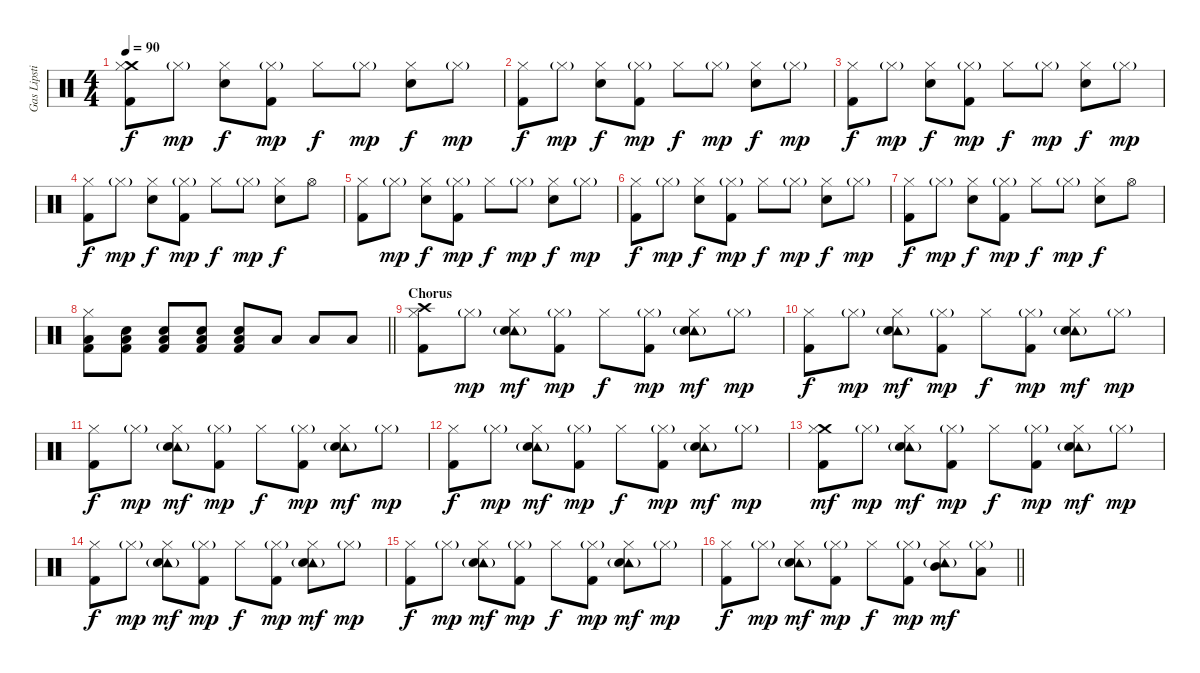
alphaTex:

\track ("Gas Lipstick (Drums)" "Gas Lipsti") {instrument percussion}
\staff {score}
\articulation defaults
\ts (4 4)
\tempo 90
\clef neutral
\ks c
("Crash medium (hit)" "Hi-Hat (closed)" "Kick (hit) 2").8{dy f} "Hi-Hat (closed)"{g}.8{dy mp} ("Hi-Hat (closed)" "Snare (hit) 2").8{dy f} ("Hi-Hat (closed)"{g} "Kick (hit) 2").8{dy mp} "Hi-Hat (closed)".8{dy f} "Hi-Hat (closed)"{g}.8{dy mp} ("Hi-Hat (closed)" "Snare (hit) 2").8{dy f} "Hi-Hat (closed)"{g}.8{dy mp} |
("Hi-Hat (closed)" "Kick (hit) 2").8{dy f} "Hi-Hat (closed)"{g}.8{dy mp} ("Hi-Hat (closed)" "Snare (hit) 2").8{dy f} ("Hi-Hat (closed)"{g} "Kick (hit) 2").8{dy mp} "Hi-Hat (closed)".8{dy f} "Hi-Hat (closed)"{g}.8{dy mp} ("Hi-Hat (closed)" "Snare (hit) 2").8{dy f} "Hi-Hat (closed)"{g}.8{dy mp} |
("Hi-Hat (closed)" "Kick (hit) 2").8{dy f} "Hi-Hat (closed)"{g}.8{dy mp} ("Hi-Hat (closed)" "Snare (hit) 2").8{dy f} ("Hi-Hat (closed)"{g} "Kick (hit) 2").8{dy mp} "Hi-Hat (closed)".8{dy f} "Hi-Hat (closed)"{g}.8{dy mp} ("Hi-Hat (closed)" "Snare (hit) 2").8{dy f} "Hi-Hat (closed)"{g}.8{dy mp} |
("Hi-Hat (closed)" "Kick (hit) 2").8{dy f} "Hi-Hat (closed)"{g}.8{dy mp} ("Hi-Hat (closed)" "Snare (hit) 2").8{dy f} ("Hi-Hat (closed)"{g} "Kick (hit) 2").8{dy mp} "Hi-Hat (closed)".8{dy f} "Hi-Hat (closed)"{g}.8{dy mp} ("Hi-Hat (closed)" "Snare (hit) 2").8{dy f} "Hi-Hat (open)".8 |
("Hi-Hat (closed)" "Kick (hit) 2").8 "Hi-Hat (closed)"{g}.8{dy mp} ("Hi-Hat (closed)" "Snare (hit) 2").8{dy f} ("Hi-Hat (closed)"{g} "Kick (hit) 2").8{dy mp} "Hi-Hat (closed)".8{dy f} "Hi-Hat (closed)"{g}.8{dy mp} ("Hi-Hat (closed)" "Snare (hit) 2").8{dy f} "Hi-Hat (closed)"{g}.8{dy mp} |
("Hi-Hat (closed)" "Kick (hit) 2").8{dy f} "Hi-Hat (closed)"{g}.8{dy mp} ("Hi-Hat (closed)" "Snare (hit) 2").8{dy f} ("Hi-Hat (closed)"{g} "Kick (hit) 2").8{dy mp} "Hi-Hat (closed)".8{dy f} "Hi-Hat (closed)"{g}.8{dy mp} ("Hi-Hat (closed)" "Snare (hit) 2").8{dy f} "Hi-Hat (closed)"{g}.8{dy mp} |
("Hi-Hat (closed)" "Kick (hit) 2").8{dy f} "Hi-Hat (closed)"{g}.8{dy mp} ("Hi-Hat (closed)" "Snare (hit) 2").8{dy f} ("Hi-Hat (closed)"{g} "Kick (hit) 2").8{dy mp} "Hi-Hat (closed)".8{dy f} "Hi-Hat (closed)"{g}.8{dy mp} ("Hi-Hat (closed)" "Snare (hit) 2").8{dy f} "Hi-Hat (open)".8 |
\barLineRight lightlight
("Hi-Hat (closed)" "Low Floor Tom (hit)" "Kick (hit) 2").8 ("Low Floor Tom (hit)" "Snare (hit) 2" "Kick (hit) 2").8 ("Low Floor Tom (hit)" "Snare (hit) 2" "Kick (hit) 2").8 ("Low Floor Tom (hit)" "Snare (hit) 2" "Kick (hit) 2").8 ("Low Floor Tom (hit)" "Snare (hit) 2" "Kick (hit) 2").8 "Low Tom (hit)".8 "Low Tom (hit)".8 "Low Floor Tom (hit)".8 |
\section ("" "Chorus")
("Crash high (hit)" "Hi-Hat (closed)" "Kick (hit) 2").8 "Hi-Hat (closed)"{g}.8{dy mp} ("Tambourine (hit)"{g} "Hi-Hat (closed)" "Snare (hit) 2").8{dy mf} ("Hi-Hat (closed)"{g} "Kick (hit) 2").8{dy mp} "Hi-Hat (closed)".8{dy f} ("Hi-Hat (closed)"{g} "Kick (hit) 2").8{dy mp} ("Tambourine (hit)"{g} "Hi-Hat (closed)" "Snare (hit) 2").8{dy mf} "Hi-Hat (closed)"{g}.8{dy mp} |
("Hi-Hat (closed)" "Kick (hit) 2").8{dy f} "Hi-Hat (closed)"{g}.8{dy mp} ("Tambourine (hit)"{g} "Hi-Hat (closed)" "Snare (hit) 2").8{dy mf} ("Hi-Hat (closed)"{g} "Kick (hit) 2").8{dy mp} "Hi-Hat (closed)".8{dy f} ("Hi-Hat (closed)"{g} "Kick (hit) 2").8{dy mp} ("Tambourine (hit)"{g} "Hi-Hat (closed)" "Snare (hit) 2").8{dy mf} "Hi-Hat (closed)"{g}.8{dy mp} |
("Hi-Hat (closed)" "Kick (hit) 2").8{dy f} "Hi-Hat (closed)"{g}.8{dy mp} ("Tambourine (hit)"{g} "Hi-Hat (closed)" "Snare (hit) 2").8{dy mf} ("Hi-Hat (closed)"{g} "Kick (hit) 2").8{dy mp} "Hi-Hat (closed)".8{dy f} ("Hi-Hat (closed)"{g} "Kick (hit) 2").8{dy mp} ("Tambourine (hit)"{g} "Hi-Hat (closed)" "Snare (hit) 2").8{dy mf} "Hi-Hat (closed)"{g}.8{dy mp} |
("Hi-Hat (closed)" "Kick (hit) 2").8{dy f} "Hi-Hat (closed)"{g}.8{dy mp} ("Tambourine (hit)"{g} "Hi-Hat (closed)" "Snare (hit) 2").8{dy mf} ("Hi-Hat (closed)"{g} "Kick (hit) 2").8{dy mp} "Hi-Hat (closed)".8{dy f} ("Hi-Hat (closed)"{g} "Kick (hit) 2").8{dy mp} ("Tambourine (hit)"{g} "Hi-Hat (closed)" "Snare (hit) 2").8{dy mf} "Hi-Hat (closed)"{g}.8{dy mp} |
("Crash medium (hit)" "Hi-Hat (closed)" "Kick (hit) 2").8{dy mf} "Hi-Hat (closed)"{g}.8{dy mp} ("Tambourine (hit)"{g} "Hi-Hat (closed)" "Snare (hit) 2").8{dy mf} ("Hi-Hat (closed)"{g} "Kick (hit) 2").8{dy mp} "Hi-Hat (closed)".8{dy f} ("Hi-Hat (closed)"{g} "Kick (hit) 2").8{dy mp} ("Tambourine (hit)"{g} "Hi-Hat (closed)" "Snare (hit) 2").8{dy mf} "Hi-Hat (closed)"{g}.8{dy mp} |
("Hi-Hat (closed)" "Kick (hit) 2").8{dy f} "Hi-Hat (closed)"{g}.8{dy mp} ("Tambourine (hit)"{g} "Hi-Hat (closed)" "Snare (hit) 2").8{dy mf} ("Hi-Hat (closed)"{g} "Kick (hit) 2").8{dy mp} "Hi-Hat (closed)".8{dy f} ("Hi-Hat (closed)"{g} "Kick (hit) 2").8{dy mp} ("Tambourine (hit)"{g} "Hi-Hat (closed)" "Snare (hit) 2").8{dy mf} "Hi-Hat (closed)"{g}.8{dy mp} |
("Hi-Hat (closed)" "Kick (hit) 2").8{dy f} "Hi-Hat (closed)"{g}.8{dy mp} ("Tambourine (hit)"{g} "Hi-Hat (closed)" "Snare (hit) 2").8{dy mf} ("Hi-Hat (closed)"{g} "Kick (hit) 2").8{dy mp} "Hi-Hat (closed)".8{dy f} ("Hi-Hat (closed)"{g} "Kick (hit) 2").8{dy mp} ("Tambourine (hit)"{g} "Hi-Hat (closed)" "Snare (hit) 2").8{dy mf} "Hi-Hat (closed)"{g}.8{dy mp} |
\barLineRight lightlight
("Hi-Hat (closed)" "Kick (hit) 2").8{dy f} "Hi-Hat (closed)"{g}.8{dy mp} ("Tambourine (hit)"{g} "Hi-Hat (closed)" "Snare (hit) 2").8{dy mf} ("Hi-Hat (closed)"{g} "Kick (hit) 2").8{dy mp} "Hi-Hat (closed)".8{dy f} ("Hi-Hat (closed)"{g} "Kick (hit) 2").8{dy mp} ("Tambourine (hit)"{g} "Hi-Hat (closed)" "Mid Tom (hit)").8{dy mf} ("Hi-Hat (closed)"{g} "Low Tom (hit)").8
